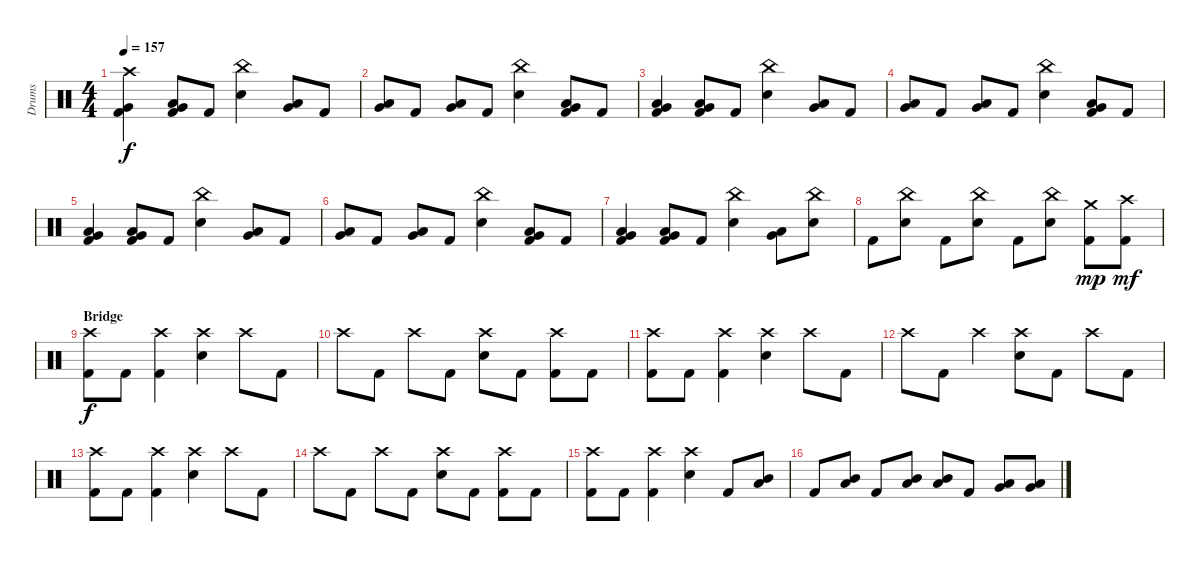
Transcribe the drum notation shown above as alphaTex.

\track ("Drums" "Drums") {instrument percussion}
\staff {score}
\articulation defaults
\ts (4 4)
\tempo 157
\clef neutral
\ks c
("Crash high (hit)" "Very Low Tom (hit)" "Kick (hit) 2").4{dy f} ("Low Tom (hit)" "Very Low Tom (hit)" "Kick (hit) 2").8 "Kick (hit) 2".8 ("China (hit)" "Electric Snare (hit)").4 ("Low Tom (hit)" "Very Low Tom (hit)").8 "Kick (hit) 2".8 |
("Low Tom (hit)" "Very Low Tom (hit)").8 "Kick (hit) 2".8 ("Low Tom (hit)" "Very Low Tom (hit)").8 "Kick (hit) 2".8 ("China (hit)" "Electric Snare (hit)").4 ("Low Tom (hit)" "Very Low Tom (hit)" "Kick (hit) 2").8 "Kick (hit) 2".8 |
("Low Tom (hit)" "Very Low Tom (hit)" "Kick (hit) 2").4 ("Low Tom (hit)" "Very Low Tom (hit)" "Kick (hit) 2").8 "Kick (hit) 2".8 ("China (hit)" "Electric Snare (hit)").4 ("Low Tom (hit)" "Very Low Tom (hit)").8 "Kick (hit) 2".8 |
("Low Tom (hit)" "Very Low Tom (hit)").8 "Kick (hit) 2".8 ("Low Tom (hit)" "Very Low Tom (hit)").8 "Kick (hit) 2".8 ("China (hit)" "Electric Snare (hit)").4 ("Low Tom (hit)" "Very Low Tom (hit)" "Kick (hit) 2").8 "Kick (hit) 2".8 |
("Low Tom (hit)" "Very Low Tom (hit)" "Kick (hit) 2").4 ("Low Tom (hit)" "Very Low Tom (hit)" "Kick (hit) 2").8 "Kick (hit) 2".8 ("China (hit)" "Electric Snare (hit)").4 ("Low Tom (hit)" "Very Low Tom (hit)").8 "Kick (hit) 2".8 |
("Low Tom (hit)" "Very Low Tom (hit)").8 "Kick (hit) 2".8 ("Low Tom (hit)" "Very Low Tom (hit)").8 "Kick (hit) 2".8 ("China (hit)" "Electric Snare (hit)").4 ("Low Tom (hit)" "Very Low Tom (hit)" "Kick (hit) 2").8 "Kick (hit) 2".8 |
("Low Tom (hit)" "Very Low Tom (hit)" "Kick (hit) 2").4 ("Low Tom (hit)" "Very Low Tom (hit)" "Kick (hit) 2").8 "Kick (hit) 2".8 ("China (hit)" "Electric Snare (hit)").4 ("Low Tom (hit)" "Very Low Tom (hit)").8 ("China (hit)" "Electric Snare (hit)").8 |
"Kick (hit) 2".8 ("China (hit)" "Electric Snare (hit)").8 "Kick (hit) 2".8 ("China (hit)" "Electric Snare (hit)").8 "Kick (hit) 2".8 ("China (hit)" "Electric Snare (hit)").8 ("Crash medium (hit)" "Kick (hit) 2").8{dy mp} ("Crash high (hit)" "Kick (hit) 2").8{dy mf} |
\section ("" "Bridge")
("Crash high (hit)" "Kick (hit) 2").8{dy f} "Kick (hit) 2".8 ("Crash high (hit)" "Kick (hit) 2").4 ("Crash high (hit)" "Electric Snare (hit)").4 "Crash high (hit)".8 "Kick (hit) 2".8 |
"Crash high (hit)".8 "Kick (hit) 2".8 "Crash high (hit)".8 "Kick (hit) 2".8 ("Crash high (hit)" "Electric Snare (hit)").8 "Kick (hit) 2".8 ("Crash high (hit)" "Kick (hit) 2").8 "Kick (hit) 2".8 |
("Crash high (hit)" "Kick (hit) 2").8 "Kick (hit) 2".8 ("Crash high (hit)" "Kick (hit) 2").4 ("Crash high (hit)" "Electric Snare (hit)").4 "Crash high (hit)".8 "Kick (hit) 2".8 |
"Crash high (hit)".8 "Kick (hit) 2".8 "Crash high (hit)".4 ("Crash high (hit)" "Electric Snare (hit)").8 "Kick (hit) 2".8 "Crash high (hit)".8 "Kick (hit) 2".8 |
("Crash high (hit)" "Kick (hit) 2").8 "Kick (hit) 2".8 ("Crash high (hit)" "Kick (hit) 2").4 ("Crash high (hit)" "Electric Snare (hit)").4 "Crash high (hit)".8 "Kick (hit) 2".8 |
"Crash high (hit)".8 "Kick (hit) 2".8 "Crash high (hit)".8 "Kick (hit) 2".8 ("Crash high (hit)" "Electric Snare (hit)").8 "Kick (hit) 2".8 ("Crash high (hit)" "Kick (hit) 2").8 "Kick (hit) 2".8 |
("Crash high (hit)" "Kick (hit) 2").8 "Kick (hit) 2".8 ("Crash high (hit)" "Kick (hit) 2").4 ("Crash high (hit)" "Electric Snare (hit)").4 "Kick (hit) 2".8 ("Mid Tom (hit)" "Low Tom (hit)").8 |
"Kick (hit) 2".8 ("Mid Tom (hit)" "Low Tom (hit)").8 "Kick (hit) 2".8 ("Mid Tom (hit)" "Low Tom (hit)").8 ("Mid Tom (hit)" "Low Tom (hit)").8 "Kick (hit) 2".8 ("Low Tom (hit)" "Very Low Tom (hit)").8 ("Low Tom (hit)" "Very Low Tom (hit)").8
